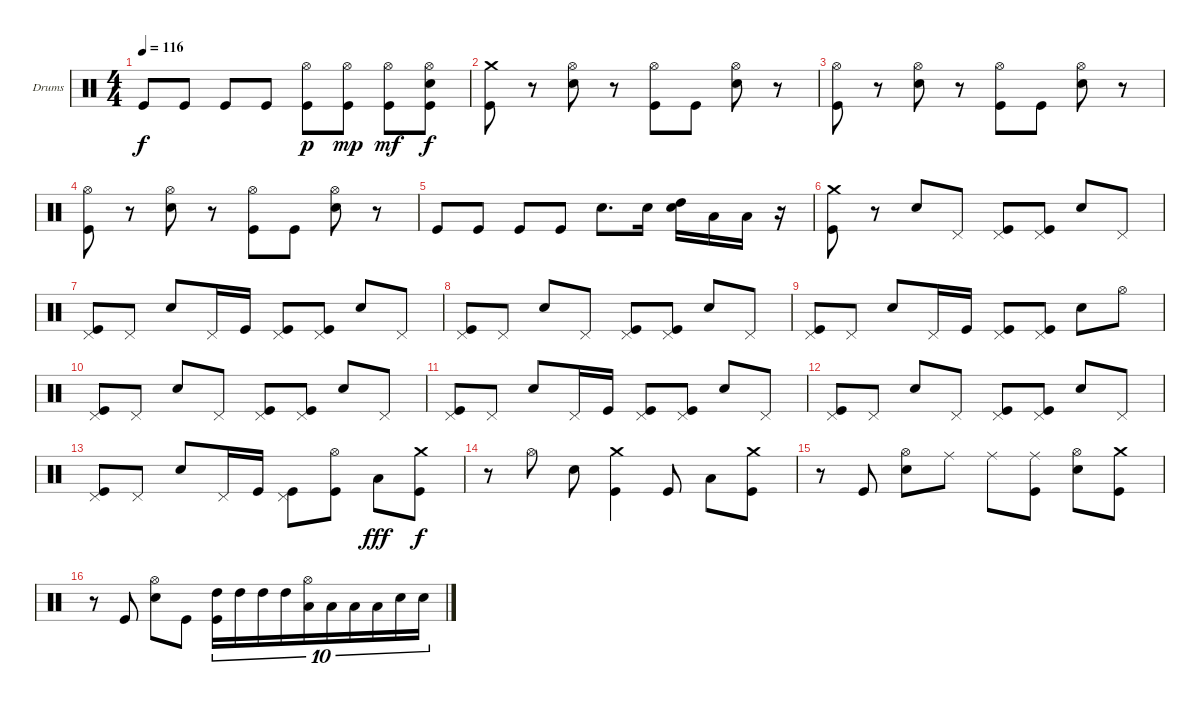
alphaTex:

\defaultSystemsLayout 4
\bracketExtendMode nobrackets
\firstSystemTrackNameOrientation horizontal
\otherSystemsTrackNameOrientation horizontal
\track ("Dave Abbruzzese" "Drums") {solo instrument percussion}
\staff {score}
\articulation defaults
\ts (4 4)
\tempo 116
\clef neutral
\ks c "Kick (hit)".8{dy f} "Kick (hit)".8 "Kick (hit)".8 "Kick (hit)".8
("Hi-Hat (open)" "Kick (hit)").8{dy p} ("Hi-Hat (open)" "Kick (hit)").8{dy mp} ("Hi-Hat (open)" "Kick (hit)").8{dy mf} ("Hi-Hat (open)" "Snare (hit) 2" "Kick (hit)").8{dy f} |
("Crash medium (hit)" "Kick (hit)").8 r.8 ("Hi-Hat (open)" "Snare (hit) 2").8 r.8 ("Hi-Hat (open)" "Kick (hit)").8 "Kick (hit)".8 ("Hi-Hat (open)" "Snare (hit) 2").8 r.8 |
("Hi-Hat (open)" "Kick (hit)").8 r.8 ("Hi-Hat (open)" "Snare (hit) 2").8 r.8 ("Hi-Hat (open)" "Kick (hit)").8 "Kick (hit)".8 ("Hi-Hat (open)" "Snare (hit) 2").8 r.8 |
("Hi-Hat (open)" "Kick (hit)").8 r.8 ("Hi-Hat (open)" "Snare (hit) 2").8 r.8 ("Hi-Hat (open)" "Kick (hit)").8 "Kick (hit)".8 ("Hi-Hat (open)" "Snare (hit) 2").8 r.8 |
"Kick (hit)".8 "Kick (hit)".8 "Kick (hit)".8 "Kick (hit)".8 "Snare (hit) 2".8{d} "Snare (hit) 2".16 ("Snare (hit) 2" "High Tom (hit)").16 "Low Tom (hit)".16 "Low Tom (hit)".16 r.16 |
("Crash medium (hit)" "Kick (hit)").8 r.8 "Snare (hit) 2".8 "Pedal Hi-Hat (hit)".8 ("Pedal Hi-Hat (hit)" "Kick (hit)").8 ("Pedal Hi-Hat (hit)" "Kick (hit)").8 "Snare (hit) 2".8 "Pedal Hi-Hat (hit)".8 |
("Pedal Hi-Hat (hit)" "Kick (hit)").8 "Pedal Hi-Hat (hit)".8 "Snare (hit) 2".8 "Pedal Hi-Hat (hit)".16 "Kick (hit)".16 ("Pedal Hi-Hat (hit)" "Kick (hit)").8 ("Pedal Hi-Hat (hit)" "Kick (hit)").8 "Snare (hit) 2".8 "Pedal Hi-Hat (hit)".8 |
("Pedal Hi-Hat (hit)" "Kick (hit)").8 "Pedal Hi-Hat (hit)".8 "Snare (hit) 2".8 "Pedal Hi-Hat (hit)".8 ("Pedal Hi-Hat (hit)" "Kick (hit)").8 ("Pedal Hi-Hat (hit)" "Kick (hit)").8 "Snare (hit) 2".8 "Pedal Hi-Hat (hit)".8 |
("Pedal Hi-Hat (hit)" "Kick (hit)").8 "Pedal Hi-Hat (hit)".8 "Snare (hit) 2".8 "Pedal Hi-Hat (hit)".16 "Kick (hit)".16 ("Pedal Hi-Hat (hit)" "Kick (hit)").8 ("Pedal Hi-Hat (hit)" "Kick (hit)").8 "Snare (hit) 2".8 "Hi-Hat (open)".8 |
("Pedal Hi-Hat (hit)" "Kick (hit)").8 "Pedal Hi-Hat (hit)".8 "Snare (hit) 2".8 "Pedal Hi-Hat (hit)".8 ("Pedal Hi-Hat (hit)" "Kick (hit)").8 ("Pedal Hi-Hat (hit)" "Kick (hit)").8 "Snare (hit) 2".8 "Pedal Hi-Hat (hit)".8 |
("Pedal Hi-Hat (hit)" "Kick (hit)").8 "Pedal Hi-Hat (hit)".8 "Snare (hit) 2".8 "Pedal Hi-Hat (hit)".16 "Kick (hit)".16 ("Pedal Hi-Hat (hit)" "Kick (hit)").8 ("Pedal Hi-Hat (hit)" "Kick (hit)").8 "Snare (hit) 2".8 "Pedal Hi-Hat (hit)".8 |
("Pedal Hi-Hat (hit)" "Kick (hit)").8 "Pedal Hi-Hat (hit)".8 "Snare (hit) 2".8 "Pedal Hi-Hat (hit)".8 ("Pedal Hi-Hat (hit)" "Kick (hit)").8 ("Pedal Hi-Hat (hit)" "Kick (hit)").8 "Snare (hit) 2".8 "Pedal Hi-Hat (hit)".8 |
("Pedal Hi-Hat (hit)" "Kick (hit)").8 "Pedal Hi-Hat (hit)".8 "Snare (hit) 2".8 "Pedal Hi-Hat (hit)".16 "Kick (hit)".16 ("Pedal Hi-Hat (hit)" "Kick (hit)").8 ("Hi-Hat (open)" "Kick (hit)").8 "Low Tom (hit)".8{dy fff} ("Crash medium (hit)" "Kick (hit)").8{dy f} |
r.8 "Hi-Hat (open)".8 "Snare (hit) 2".8 ("Crash medium (hit)" "Kick (hit)").4 "Kick (hit)".8 "Low Tom (hit)".8 ("Crash medium (hit)" "Kick (hit)").8 |
r.8 "Kick (hit)".8 ("Hi-Hat (open)" "Snare (hit) 2").8 "Ride (middle)".8 "Ride (middle)".8 ("Ride (middle)" "Kick (hit)").8 ("Hi-Hat (open)" "Snare (hit) 2").8 ("Crash medium (hit)" "Kick (hit)").8 |
r.8 "Kick (hit)".8 ("Hi-Hat (open)" "Snare (hit) 2").8 "Kick (hit)".8 ("High Tom (hit)" "Kick (hit)").16{tu (10 8)} "High Tom (hit)".16{tu (10 8)} "High Tom (hit)".16{tu (10 8)} "High Tom (hit)".16{tu (10 8)} ("Hi-Hat (open)" "Low Tom (hit)").16{tu (10 8)} "Low Tom (hit)".16{tu (10 8)} "Low Tom (hit)".16{tu (10 8)} "Low Tom (hit)".16{tu (10 8)} "Snare (hit) 2".16{tu (10 8)} "Snare (hit) 2".16{tu (10 8)}
